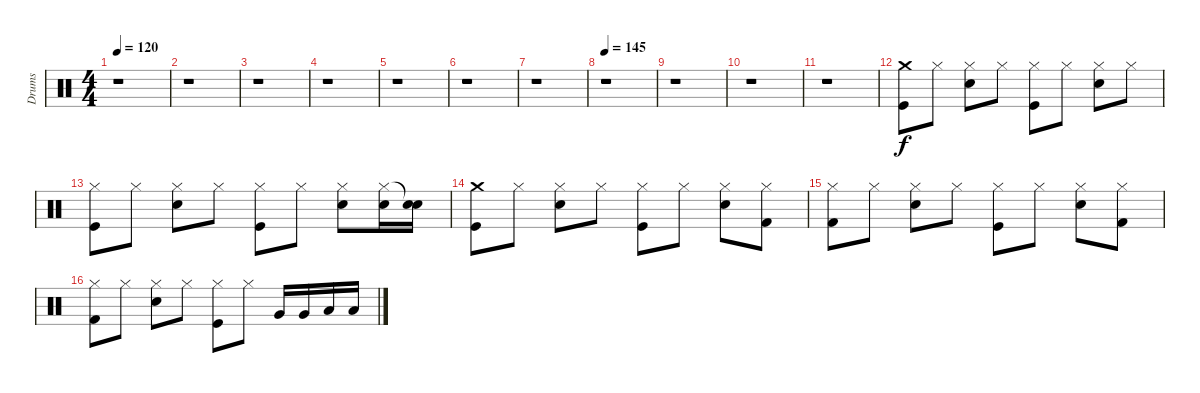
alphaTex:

\track ("Drums" "Drums") {instrument percussion}
\staff {score}
\articulation defaults
\ts (4 4)
\tempo 120
\clef neutral
\ks c
r.1{dy f} |
r.1 |
r.1 |
r.1 |
r.1 |
r.1 |
r.1 |
\tempo 145
r.1 |
r.1 |
r.1 |
r.1 |
("Crash medium (hit)" "Kick (hit)").8 "Hi-Hat (closed)".8 ("Hi-Hat (closed)" "Electric Snare (hit)").8 "Hi-Hat (closed)".8 ("Hi-Hat (closed)" "Kick (hit)").8 "Hi-Hat (closed)".8 ("Hi-Hat (closed)" "Electric Snare (hit)").8 "Hi-Hat (closed)".8 |
("Hi-Hat (closed)" "Kick (hit)").8 "Hi-Hat (closed)".8 ("Hi-Hat (closed)" "Electric Snare (hit)").8 "Hi-Hat (closed)".8 ("Hi-Hat (closed)" "Kick (hit)").8 "Hi-Hat (closed)".8 ("Hi-Hat (closed)" "Electric Snare (hit)").8 ("Hi-Hat (closed)" "Electric Snare (hit)").16 ("Snare (hit)"{t} "Electric Snare (hit)").16 |
("Crash medium (hit)" "Kick (hit)").8 "Hi-Hat (closed)".8 ("Hi-Hat (closed)" "Electric Snare (hit)").8 "Hi-Hat (closed)".8 ("Hi-Hat (closed)" "Kick (hit)").8 "Hi-Hat (closed)".8 ("Hi-Hat (closed)" "Electric Snare (hit)").8 ("Hi-Hat (closed)" "Kick (hit) 2").8 |
("Hi-Hat (closed)" "Kick (hit) 2").8 "Hi-Hat (closed)".8 ("Hi-Hat (closed)" "Electric Snare (hit)").8 "Hi-Hat (closed)".8 ("Hi-Hat (closed)" "Kick (hit)").8 "Hi-Hat (closed)".8 ("Hi-Hat (closed)" "Electric Snare (hit)").8 ("Hi-Hat (closed)" "Kick (hit) 2").8 |
("Hi-Hat (closed)" "Kick (hit) 2").8 "Hi-Hat (closed)".8 ("Hi-Hat (closed)" "Electric Snare (hit)").8 "Hi-Hat (closed)".8 ("Hi-Hat (closed)" "Kick (hit)").8 "Hi-Hat (closed)".8 "Very Low Tom (hit)".16 "Very Low Tom (hit)".16 "Low Floor Tom (hit)".16 "Low Floor Tom (hit)".16
